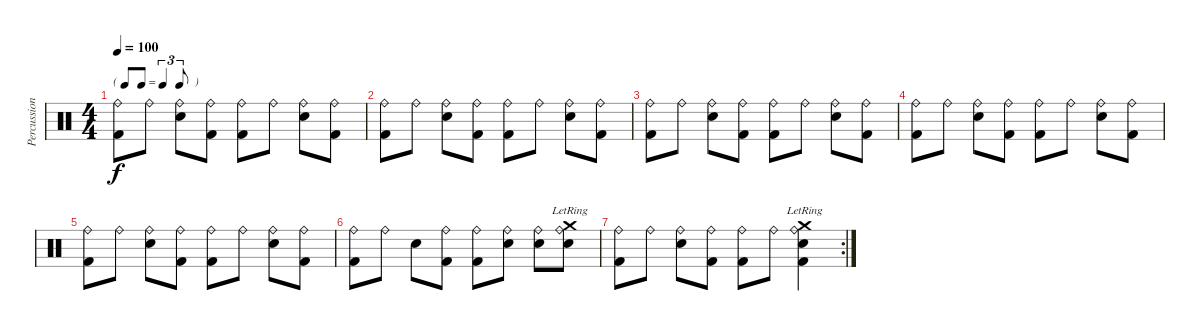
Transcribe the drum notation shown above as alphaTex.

\track ("Percussions" "Percussion") {instrument percussion}
\staff {score}
\articulation defaults
\ts (4 4)
\tf triplet8th
\tempo 100
\clef neutral
\ks c
("Ride (bell)" "Kick (hit) 2").8{dy f} "Ride (bell)".8 ("Ride (bell)" "Electric Snare (hit)").8 ("Ride (bell)" "Kick (hit) 2").8 ("Ride (bell)" "Kick (hit) 2").8 "Ride (bell)".8 ("Ride (bell)" "Electric Snare (hit)").8 ("Ride (bell)" "Kick (hit) 2").8 |
("Ride (bell)" "Kick (hit) 2").8 "Ride (bell)".8 ("Ride (bell)" "Electric Snare (hit)").8 ("Ride (bell)" "Kick (hit) 2").8 ("Ride (bell)" "Kick (hit) 2").8 "Ride (bell)".8 ("Ride (bell)" "Electric Snare (hit)").8 ("Ride (bell)" "Kick (hit) 2").8 |
("Ride (bell)" "Kick (hit) 2").8 "Ride (bell)".8 ("Ride (bell)" "Electric Snare (hit)").8 ("Ride (bell)" "Kick (hit) 2").8 ("Ride (bell)" "Kick (hit) 2").8 "Ride (bell)".8 ("Ride (bell)" "Electric Snare (hit)").8 ("Ride (bell)" "Kick (hit) 2").8 |
("Ride (bell)" "Kick (hit) 2").8 "Ride (bell)".8 ("Ride (bell)" "Electric Snare (hit)").8 ("Ride (bell)" "Kick (hit) 2").8 ("Ride (bell)" "Kick (hit) 2").8 "Ride (bell)".8 ("Ride (bell)" "Electric Snare (hit)").8 ("Ride (bell)" "Kick (hit) 2").8 |
("Ride (bell)" "Kick (hit) 2").8 "Ride (bell)".8 ("Ride (bell)" "Electric Snare (hit)").8 ("Ride (bell)" "Kick (hit) 2").8 ("Ride (bell)" "Kick (hit) 2").8 "Ride (bell)".8 ("Ride (bell)" "Electric Snare (hit)").8 ("Ride (bell)" "Kick (hit) 2").8 |
("Ride (bell)" "Kick (hit) 2").8 "Ride (bell)".8 "Electric Snare (hit)".8 ("Ride (bell)" "Kick (hit) 2").8 ("Ride (bell)" "Kick (hit) 2").8 ("Electric Snare (hit)" "Ride (bell)").8 ("Electric Snare (hit)" "Ride (bell)").8 ("Electric Snare (hit)" "Ride (bell)" "Crash medium (hit)"{lr}).8 |
\rc 2
("Ride (bell)" "Kick (hit) 2").8 "Ride (bell)".8 ("Ride (bell)" "Electric Snare (hit)").8 ("Ride (bell)" "Kick (hit) 2").8 ("Ride (bell)" "Kick (hit) 2").8 "Ride (bell)".8 ("Ride (bell)" "Kick (hit) 2" "Crash medium (hit)"{lr} "Electric Snare (hit)").4
